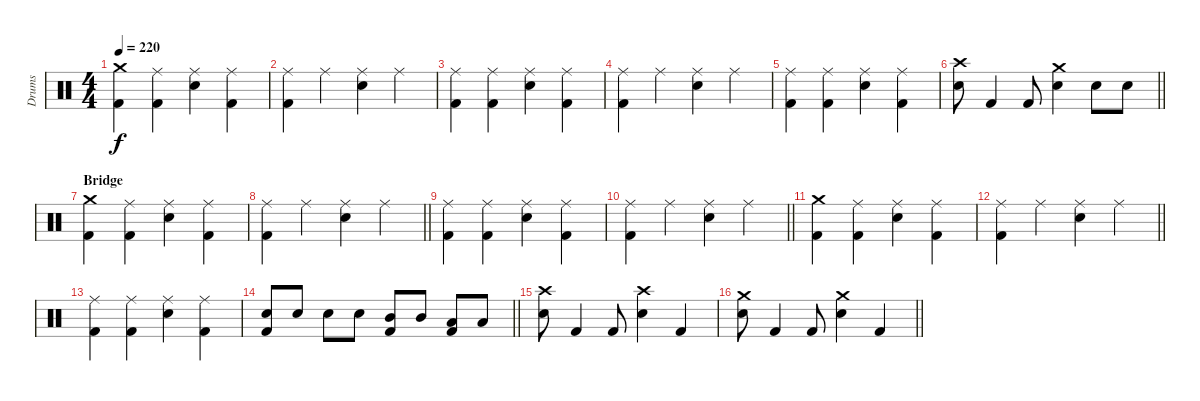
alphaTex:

\track ("Drums" "Drums") {instrument percussion}
\staff {score}
\articulation defaults
\ts (4 4)
\tempo 220
\clef neutral
\ks c
("Crash medium (hit)" "Kick (hit) 2").4{dy f} ("Ride (middle)" "Kick (hit) 2").4 ("Ride (middle)" "Electric Snare (hit)").4 ("Ride (middle)" "Kick (hit) 2").4 |
("Ride (middle)" "Kick (hit) 2").4 "Ride (middle)".4 ("Ride (middle)" "Electric Snare (hit)").4 "Ride (middle)".4 |
("Ride (middle)" "Kick (hit) 2").4 ("Ride (middle)" "Kick (hit) 2").4 ("Ride (middle)" "Electric Snare (hit)").4 ("Ride (middle)" "Kick (hit) 2").4 |
("Ride (middle)" "Kick (hit) 2").4 "Ride (middle)".4 ("Ride (middle)" "Electric Snare (hit)").4 "Ride (middle)".4 |
("Ride (middle)" "Kick (hit) 2").4 ("Ride (middle)" "Kick (hit) 2").4 ("Ride (middle)" "Electric Snare (hit)").4 ("Ride (middle)" "Kick (hit) 2").4 |
\barLineRight lightlight
("Crash high (hit)" "Electric Snare (hit)").8 "Kick (hit) 2".4 "Kick (hit) 2".8 ("Crash medium (hit)" "Electric Snare (hit)").4 "Electric Snare (hit)".8 "Electric Snare (hit)".8 |
\section ("" "Bridge")
("Crash medium (hit)" "Kick (hit) 2").4 ("Ride (middle)" "Kick (hit) 2").4 ("Ride (middle)" "Electric Snare (hit)").4 ("Ride (middle)" "Kick (hit) 2").4 |
\barLineRight lightlight
("Ride (middle)" "Kick (hit) 2").4 "Ride (middle)".4 ("Ride (middle)" "Electric Snare (hit)").4 "Ride (middle)".4 |
("Ride (middle)" "Kick (hit) 2").4 ("Ride (middle)" "Kick (hit) 2").4 ("Ride (middle)" "Electric Snare (hit)").4 ("Ride (middle)" "Kick (hit) 2").4 |
\barLineRight lightlight
("Ride (middle)" "Kick (hit) 2").4 "Ride (middle)".4 ("Ride (middle)" "Electric Snare (hit)").4 "Ride (middle)".4 |
("Crash medium (hit)" "Kick (hit) 2").4 ("Ride (middle)" "Kick (hit) 2").4 ("Ride (middle)" "Electric Snare (hit)").4 ("Ride (middle)" "Kick (hit) 2").4 |
\barLineRight lightlight
("Ride (middle)" "Kick (hit) 2").4 "Ride (middle)".4 ("Ride (middle)" "Electric Snare (hit)").4 "Ride (middle)".4 |
("Ride (middle)" "Kick (hit) 2").4 ("Ride (middle)" "Kick (hit) 2").4 ("Ride (middle)" "Electric Snare (hit)").4 ("Ride (middle)" "Kick (hit) 2").4 |
\barLineRight lightlight
("Electric Snare (hit)" "Kick (hit) 2").8 "Electric Snare (hit)".8 "Electric Snare (hit)".8 "Electric Snare (hit)".8 ("Mid Tom (hit)" "Kick (hit) 2").8 "Mid Tom (hit)".8 ("Low Tom (hit)" "Kick (hit) 2").8 "Low Tom (hit)".8 |
("Crash high (hit)" "Electric Snare (hit)").8 "Kick (hit) 2".4 "Kick (hit) 2".8 ("Crash high (hit)" "Electric Snare (hit)").4 "Kick (hit) 2".4 |
\barLineRight lightlight
("Crash medium (hit)" "Electric Snare (hit)").8 "Kick (hit) 2".4 "Kick (hit) 2".8 ("Crash medium (hit)" "Electric Snare (hit)").4 "Kick (hit) 2".4
